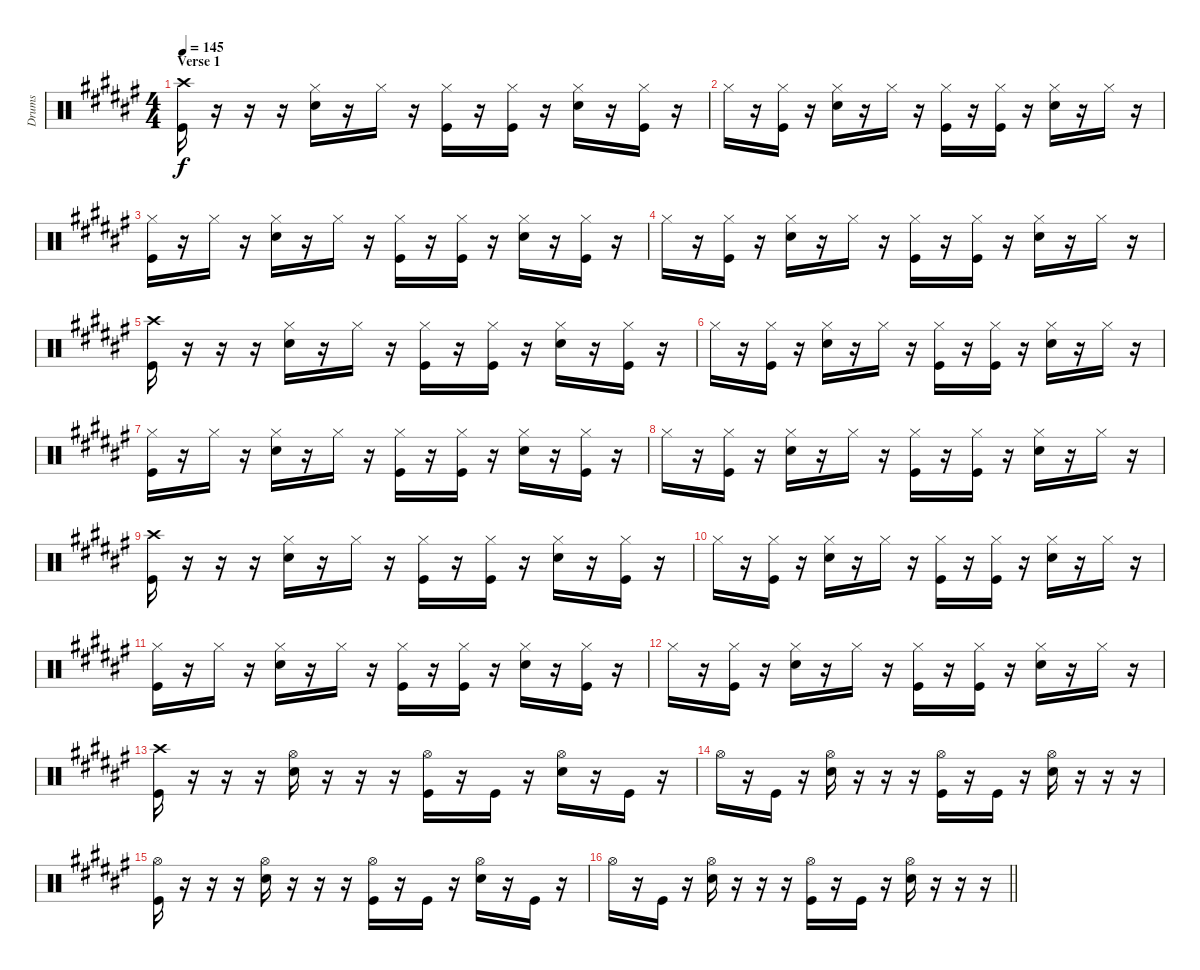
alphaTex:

\track ("Drums" "Drums") {instrument percussion}
\staff {score}
\articulation defaults
\ts (4 4)
\section ("" "Verse 1")
\tempo 145
\clef neutral
\ks f#
("Kick (hit)" "Crash high (hit)").16{dy f} r.16 r.16 r.16 ("Hi-Hat (closed)" "Snare (hit) 2").16 r.16 "Hi-Hat (closed)".16 r.16 ("Hi-Hat (closed)" "Kick (hit)").16 r.16 ("Hi-Hat (closed)" "Kick (hit)").16 r.16 ("Hi-Hat (closed)" "Snare (hit) 2").16 r.16 ("Hi-Hat (closed)" "Kick (hit)").16 r.16 |
"Hi-Hat (closed)".16 r.16 ("Hi-Hat (closed)" "Kick (hit)").16 r.16 ("Hi-Hat (closed)" "Snare (hit) 2").16 r.16 "Hi-Hat (closed)".16 r.16 ("Hi-Hat (closed)" "Kick (hit)").16 r.16 ("Hi-Hat (closed)" "Kick (hit)").16 r.16 ("Hi-Hat (closed)" "Snare (hit) 2").16 r.16 "Hi-Hat (closed)".16 r.16 |
("Hi-Hat (closed)" "Kick (hit)").16 r.16 "Hi-Hat (closed)".16 r.16 ("Hi-Hat (closed)" "Snare (hit) 2").16 r.16 "Hi-Hat (closed)".16 r.16 ("Hi-Hat (closed)" "Kick (hit)").16 r.16 ("Hi-Hat (closed)" "Kick (hit)").16 r.16 ("Hi-Hat (closed)" "Snare (hit) 2").16 r.16 ("Hi-Hat (closed)" "Kick (hit)").16 r.16 |
"Hi-Hat (closed)".16 r.16 ("Hi-Hat (closed)" "Kick (hit)").16 r.16 ("Hi-Hat (closed)" "Snare (hit) 2").16 r.16 "Hi-Hat (closed)".16 r.16 ("Hi-Hat (closed)" "Kick (hit)").16 r.16 ("Hi-Hat (closed)" "Kick (hit)").16 r.16 ("Hi-Hat (closed)" "Snare (hit) 2").16 r.16 "Hi-Hat (closed)".16 r.16 |
("Kick (hit)" "Crash high (hit)").16 r.16 r.16 r.16 ("Hi-Hat (closed)" "Snare (hit) 2").16 r.16 "Hi-Hat (closed)".16 r.16 ("Hi-Hat (closed)" "Kick (hit)").16 r.16 ("Hi-Hat (closed)" "Kick (hit)").16 r.16 ("Hi-Hat (closed)" "Snare (hit) 2").16 r.16 ("Hi-Hat (closed)" "Kick (hit)").16 r.16 |
"Hi-Hat (closed)".16 r.16 ("Hi-Hat (closed)" "Kick (hit)").16 r.16 ("Hi-Hat (closed)" "Snare (hit) 2").16 r.16 "Hi-Hat (closed)".16 r.16 ("Hi-Hat (closed)" "Kick (hit)").16 r.16 ("Hi-Hat (closed)" "Kick (hit)").16 r.16 ("Hi-Hat (closed)" "Snare (hit) 2").16 r.16 "Hi-Hat (closed)".16 r.16 |
("Hi-Hat (closed)" "Kick (hit)").16 r.16 "Hi-Hat (closed)".16 r.16 ("Hi-Hat (closed)" "Snare (hit) 2").16 r.16 "Hi-Hat (closed)".16 r.16 ("Hi-Hat (closed)" "Kick (hit)").16 r.16 ("Hi-Hat (closed)" "Kick (hit)").16 r.16 ("Hi-Hat (closed)" "Snare (hit) 2").16 r.16 ("Hi-Hat (closed)" "Kick (hit)").16 r.16 |
"Hi-Hat (closed)".16 r.16 ("Hi-Hat (closed)" "Kick (hit)").16 r.16 ("Hi-Hat (closed)" "Snare (hit) 2").16 r.16 "Hi-Hat (closed)".16 r.16 ("Hi-Hat (closed)" "Kick (hit)").16 r.16 ("Hi-Hat (closed)" "Kick (hit)").16 r.16 ("Hi-Hat (closed)" "Snare (hit) 2").16 r.16 "Hi-Hat (closed)".16 r.16 |
("Kick (hit)" "Crash high (hit)").16 r.16 r.16 r.16 ("Hi-Hat (closed)" "Snare (hit) 2").16 r.16 "Hi-Hat (closed)".16 r.16 ("Hi-Hat (closed)" "Kick (hit)").16 r.16 ("Hi-Hat (closed)" "Kick (hit)").16 r.16 ("Hi-Hat (closed)" "Snare (hit) 2").16 r.16 ("Hi-Hat (closed)" "Kick (hit)").16 r.16 |
"Hi-Hat (closed)".16 r.16 ("Hi-Hat (closed)" "Kick (hit)").16 r.16 ("Hi-Hat (closed)" "Snare (hit) 2").16 r.16 "Hi-Hat (closed)".16 r.16 ("Hi-Hat (closed)" "Kick (hit)").16 r.16 ("Hi-Hat (closed)" "Kick (hit)").16 r.16 ("Hi-Hat (closed)" "Snare (hit) 2").16 r.16 "Hi-Hat (closed)".16 r.16 |
("Hi-Hat (closed)" "Kick (hit)").16 r.16 "Hi-Hat (closed)".16 r.16 ("Hi-Hat (closed)" "Snare (hit) 2").16 r.16 "Hi-Hat (closed)".16 r.16 ("Hi-Hat (closed)" "Kick (hit)").16 r.16 ("Hi-Hat (closed)" "Kick (hit)").16 r.16 ("Hi-Hat (closed)" "Snare (hit) 2").16 r.16 ("Hi-Hat (closed)" "Kick (hit)").16 r.16 |
"Hi-Hat (closed)".16 r.16 ("Hi-Hat (closed)" "Kick (hit)").16 r.16 ("Hi-Hat (closed)" "Snare (hit) 2").16 r.16 "Hi-Hat (closed)".16 r.16 ("Hi-Hat (closed)" "Kick (hit)").16 r.16 ("Hi-Hat (closed)" "Kick (hit)").16 r.16 ("Hi-Hat (closed)" "Snare (hit) 2").16 r.16 "Hi-Hat (closed)".16 r.16 |
("Kick (hit)" "Crash high (hit)").16 r.16 r.16 r.16 ("Hi-Hat (open)" "Snare (hit) 2").16 r.16 r.16 r.16 ("Hi-Hat (open)" "Kick (hit)").16 r.16 "Kick (hit)".16 r.16 ("Hi-Hat (open)" "Snare (hit) 2").16 r.16 "Kick (hit)".16 r.16 |
"Hi-Hat (open)".16 r.16 "Kick (hit)".16 r.16 ("Hi-Hat (open)" "Snare (hit) 2").16 r.16 r.16 r.16 ("Hi-Hat (open)" "Kick (hit)").16 r.16 "Kick (hit)".16 r.16 ("Hi-Hat (open)" "Snare (hit) 2").16 r.16 r.16 r.16 |
("Hi-Hat (open)" "Kick (hit)").16 r.16 r.16 r.16 ("Hi-Hat (open)" "Snare (hit) 2").16 r.16 r.16 r.16 ("Hi-Hat (open)" "Kick (hit)").16 r.16 "Kick (hit)".16 r.16 ("Hi-Hat (open)" "Snare (hit) 2").16 r.16 "Kick (hit)".16 r.16 |
\barLineRight lightlight "Hi-Hat (open)".16
r.16 "Kick (hit)".16 r.16 ("Hi-Hat (open)" "Snare (hit) 2").16 r.16 r.16 r.16 ("Hi-Hat (open)" "Kick (hit)").16 r.16 "Kick (hit)".16 r.16 ("Hi-Hat (open)" "Snare (hit) 2").16 r.16 r.16 r.16
